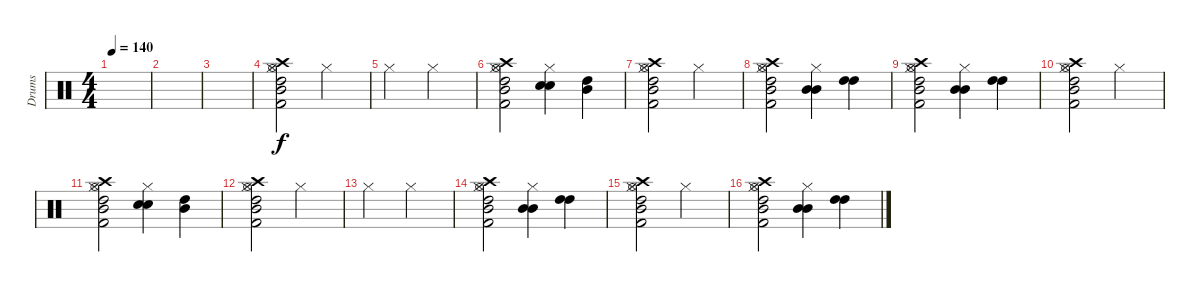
\track ("Drums" "Drums") {instrument percussion}
\staff {score}
\articulation defaults
\ts (4 4)
\tempo 140
\clef neutral
\ks c
|
|
|
("Kick (hit) 2" "Mid Tom (hit)" "High Tom (hit)" "Hi-Hat (open)" "Crash high (hit)" "Hi-Hat (closed)").2 "Hi-Hat (closed)".2 |
"Hi-Hat (closed)".2 "Hi-Hat (closed)".2 |
("Kick (hit) 2" "Mid Tom (hit)" "High Tom (hit)" "Hi-Hat (open)" "Crash high (hit)" "Hi-Hat (closed)").2 ("Snare (hit) 2" "Electric Snare (hit)" "Hi-Hat (closed)").4 ("Mid Tom (hit)" "High Tom (hit)").4 |
("Kick (hit) 2" "Mid Tom (hit)" "High Tom (hit)" "Hi-Hat (open)" "Crash high (hit)" "Hi-Hat (closed)").2 "Hi-Hat (closed)".2 |
("Kick (hit) 2" "Mid Tom (hit)" "High Tom (hit)" "Hi-Hat (open)" "Crash high (hit)" "Hi-Hat (closed)").2 ("Mid Tom (hit)" "Mid Tom (hit)" "Hi-Hat (closed)").4 ("High Tom (hit)" "High Tom (hit)").4 |
("Kick (hit) 2" "Mid Tom (hit)" "High Tom (hit)" "Hi-Hat (open)" "Crash high (hit)" "Hi-Hat (closed)").2 ("Mid Tom (hit)" "Mid Tom (hit)" "Hi-Hat (closed)").4 ("High Tom (hit)" "High Tom (hit)").4 |
("Kick (hit) 2" "Mid Tom (hit)" "High Tom (hit)" "Hi-Hat (open)" "Crash high (hit)" "Hi-Hat (closed)").2 "Hi-Hat (closed)".2 |
("Kick (hit) 2" "Mid Tom (hit)" "High Tom (hit)" "Hi-Hat (open)" "Crash high (hit)" "Hi-Hat (closed)").2 ("Snare (hit) 2" "Electric Snare (hit)" "Hi-Hat (closed)").4 ("Mid Tom (hit)" "High Tom (hit)").4 |
("Kick (hit) 2" "Mid Tom (hit)" "High Tom (hit)" "Hi-Hat (open)" "Crash high (hit)" "Hi-Hat (closed)").2 "Hi-Hat (closed)".2 |
"Hi-Hat (closed)".2 "Hi-Hat (closed)".2 |
("Kick (hit) 2" "Mid Tom (hit)" "High Tom (hit)" "Hi-Hat (open)" "Crash high (hit)" "Hi-Hat (closed)").2 ("Mid Tom (hit)" "Mid Tom (hit)" "Hi-Hat (closed)").4 ("High Tom (hit)" "High Tom (hit)").4 |
("Kick (hit) 2" "Mid Tom (hit)" "High Tom (hit)" "Hi-Hat (open)" "Crash high (hit)" "Hi-Hat (closed)").2 "Hi-Hat (closed)".2 |
("Kick (hit) 2" "Mid Tom (hit)" "High Tom (hit)" "Hi-Hat (open)" "Crash high (hit)" "Hi-Hat (closed)").2 ("Mid Tom (hit)" "Mid Tom (hit)" "Hi-Hat (closed)").4 ("High Tom (hit)" "High Tom (hit)").4
